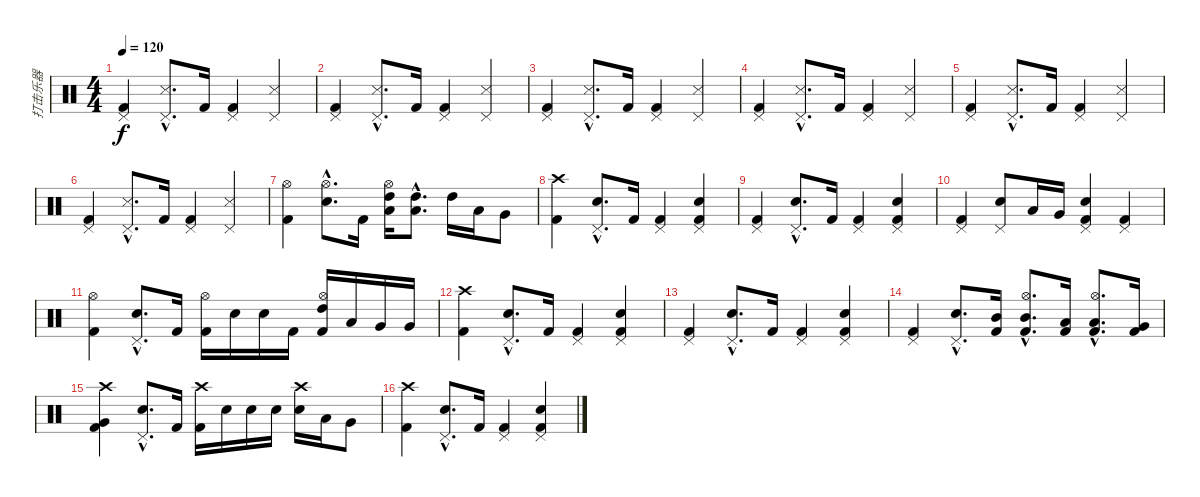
\track ("打击乐器" "打击乐器") {instrument percussion}
\staff {score}
\articulation defaults
\ts (4 4)
\tempo 120
\clef neutral
\ks c
("Pedal Hi-Hat (hit)" "Kick (hit) 2").4{dy f} ("Pedal Hi-Hat (hit)"{hac} "Snare (side stick) 3"{hac}).8{d} "Kick (hit) 2".16 ("Pedal Hi-Hat (hit)" "Kick (hit) 2").4 ("Pedal Hi-Hat (hit)" "Snare (side stick) 3").4 |
("Pedal Hi-Hat (hit)" "Kick (hit) 2").4 ("Pedal Hi-Hat (hit)"{hac} "Snare (side stick) 3"{hac}).8{d} "Kick (hit) 2".16 ("Pedal Hi-Hat (hit)" "Kick (hit) 2").4 ("Pedal Hi-Hat (hit)" "Snare (side stick) 3").4 |
("Pedal Hi-Hat (hit)" "Kick (hit) 2").4 ("Pedal Hi-Hat (hit)"{hac} "Snare (side stick) 3"{hac}).8{d} "Kick (hit) 2".16 ("Pedal Hi-Hat (hit)" "Kick (hit) 2").4 ("Pedal Hi-Hat (hit)" "Snare (side stick) 3").4 |
("Pedal Hi-Hat (hit)" "Kick (hit) 2").4 ("Pedal Hi-Hat (hit)"{hac} "Snare (side stick) 3"{hac}).8{d} "Kick (hit) 2".16 ("Pedal Hi-Hat (hit)" "Kick (hit) 2").4 ("Pedal Hi-Hat (hit)" "Snare (side stick) 3").4 |
("Pedal Hi-Hat (hit)" "Kick (hit) 2").4 ("Pedal Hi-Hat (hit)"{hac} "Snare (side stick) 3"{hac}).8{d} "Kick (hit) 2".16 ("Pedal Hi-Hat (hit)" "Kick (hit) 2").4 ("Pedal Hi-Hat (hit)" "Snare (side stick) 3").4 |
("Pedal Hi-Hat (hit)" "Kick (hit) 2").4 ("Pedal Hi-Hat (hit)"{hac} "Snare (side stick) 3"{hac}).8{d} "Kick (hit) 2".16 ("Pedal Hi-Hat (hit)" "Kick (hit) 2").4 ("Pedal Hi-Hat (hit)" "Snare (side stick) 3").4 |
("Hi-Hat (open)" "Kick (hit) 2").4 ("Hi-Hat (open)"{hac} "Snare (hit) 2"{hac}).8{d} "Kick (hit) 2".16 ("Hi-Hat (open)" "Low Tom (hit)" "High Tom (hit)").16 ("Low Tom (hit)"{hac} "High Tom (hit)"{hac}).8{d} "High Tom (hit)".16 "Low Tom (hit)".16 "Very Low Tom (hit)".8 |
("Crash high (hit)" "Kick (hit) 2").4 ("Pedal Hi-Hat (hit)"{hac} "Snare (hit) 2"{hac}).8{d} "Kick (hit) 2".16 ("Pedal Hi-Hat (hit)" "Kick (hit) 2").4 ("Pedal Hi-Hat (hit)" "Snare (hit) 2" "Kick (hit) 2").4 |
("Pedal Hi-Hat (hit)" "Kick (hit) 2").4 ("Pedal Hi-Hat (hit)"{hac} "Snare (hit) 2"{hac}).8{d} "Kick (hit) 2".16 ("Pedal Hi-Hat (hit)" "Kick (hit) 2").4 ("Pedal Hi-Hat (hit)" "Snare (hit) 2" "Kick (hit) 2").4 |
("Pedal Hi-Hat (hit)" "Kick (hit) 2").4 ("Pedal Hi-Hat (hit)" "Snare (hit) 2").8 "Low Tom (hit)".16 "Very Low Tom (hit)".16 ("Pedal Hi-Hat (hit)" "Snare (hit) 2" "Kick (hit) 2").4 ("Pedal Hi-Hat (hit)" "Kick (hit) 2").4 |
("Hi-Hat (open)" "Kick (hit) 2").4 ("Pedal Hi-Hat (hit)"{hac} "Snare (hit) 2"{hac}).8{d} "Kick (hit) 2".16 ("Hi-Hat (open)" "Kick (hit) 2").16 "Snare (hit) 2".16 "Snare (hit) 2".16 "Kick (hit) 2".16 ("Hi-Hat (open)" "High Tom (hit)" "Kick (hit) 2").16 "Low Tom (hit)".16 "Very Low Tom (hit)".16 "Very Low Tom (hit)".16 |
("Crash high (hit)" "Kick (hit) 2").4 ("Pedal Hi-Hat (hit)"{hac} "Snare (hit) 2"{hac}).8{d} "Kick (hit) 2".16 ("Pedal Hi-Hat (hit)" "Kick (hit) 2").4 ("Pedal Hi-Hat (hit)" "Snare (hit) 2" "Kick (hit) 2").4 |
("Pedal Hi-Hat (hit)" "Kick (hit) 2").4 ("Pedal Hi-Hat (hit)"{hac} "Snare (hit) 2"{hac}).8{d} "Kick (hit) 2".16 ("Pedal Hi-Hat (hit)" "Kick (hit) 2").4 ("Pedal Hi-Hat (hit)" "Snare (hit) 2" "Kick (hit) 2").4 |
("Pedal Hi-Hat (hit)" "Kick (hit) 2").4 ("Pedal Hi-Hat (hit)"{hac} "Snare (hit) 2"{hac}).8{d} ("Mid Tom (hit)" "Kick (hit) 2").16 ("Hi-Hat (open)"{hac} "Mid Tom (hit)"{hac} "Kick (hit) 2"{hac}).8{d} ("Low Tom (hit)" "Kick (hit) 2").16 ("Hi-Hat (open)"{hac} "Low Tom (hit)"{hac} "Kick (hit) 2"{hac}).8{d} ("Very Low Tom (hit)" "Kick (hit) 2").16 |
("Crash high (hit)" "Very Low Tom (hit)" "Kick (hit) 2").4 ("Pedal Hi-Hat (hit)"{hac} "Snare (hit) 2"{hac}).8{d} "Kick (hit) 2".16 ("Crash high (hit)" "Kick (hit) 2").16 "Snare (hit) 2".16 "Snare (hit) 2".16 "Snare (hit) 2".16 ("Crash high (hit)" "Snare (hit) 2").16 "Low Tom (hit)".16 "Very Low Tom (hit)".8 |
("Crash high (hit)" "Kick (hit) 2").4 ("Pedal Hi-Hat (hit)"{hac} "Snare (hit) 2"{hac}).8{d} "Kick (hit) 2".16 ("Pedal Hi-Hat (hit)" "Kick (hit) 2").4 ("Pedal Hi-Hat (hit)" "Snare (hit) 2" "Kick (hit) 2").4
